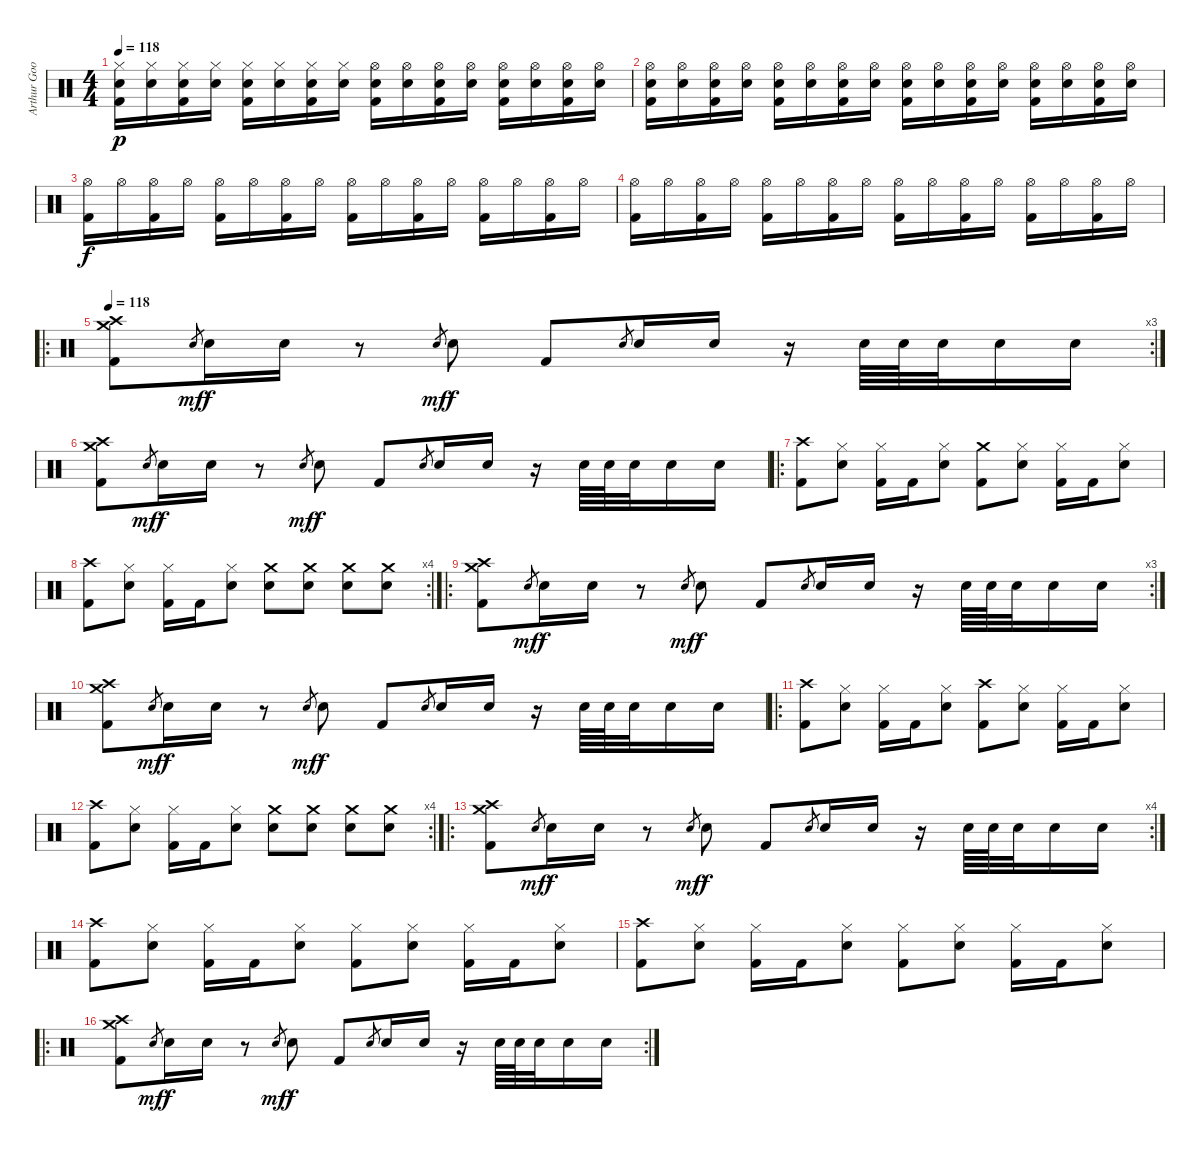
\track ("Arthur Googy" "Arthur Goo") {instrument percussion}
\staff {score}
\articulation defaults
\ts (4 4)
\tempo 118
\tempo 107
\tempo 118
\clef neutral
\ks c
("Hi-Hat (closed)" "Electric Snare (hit)" "Kick (hit) 2").16{dy p} ("Hi-Hat (closed)" "Electric Snare (hit)").16 ("Hi-Hat (closed)" "Electric Snare (hit)" "Kick (hit) 2").16 ("Hi-Hat (closed)" "Electric Snare (hit)").16 ("Hi-Hat (closed)" "Electric Snare (hit)" "Kick (hit) 2").16 ("Hi-Hat (closed)" "Electric Snare (hit)").16 ("Hi-Hat (closed)" "Electric Snare (hit)" "Kick (hit) 2").16 ("Hi-Hat (closed)" "Electric Snare (hit)").16 ("Hi-Hat (open)" "Electric Snare (hit)" "Kick (hit) 2").16 ("Hi-Hat (open)" "Electric Snare (hit)").16 ("Hi-Hat (open)" "Electric Snare (hit)" "Kick (hit) 2").16 ("Hi-Hat (open)" "Electric Snare (hit)").16 ("Hi-Hat (open)" "Electric Snare (hit)" "Kick (hit) 2").16 ("Hi-Hat (open)" "Electric Snare (hit)").16 ("Hi-Hat (open)" "Electric Snare (hit)" "Kick (hit) 2").16 ("Hi-Hat (open)" "Electric Snare (hit)").16 |
("Hi-Hat (open)" "Electric Snare (hit)" "Kick (hit) 2").16 ("Hi-Hat (open)" "Electric Snare (hit)").16 ("Hi-Hat (open)" "Electric Snare (hit)" "Kick (hit) 2").16 ("Hi-Hat (open)" "Electric Snare (hit)").16 ("Hi-Hat (open)" "Electric Snare (hit)" "Kick (hit) 2").16 ("Hi-Hat (open)" "Electric Snare (hit)").16 ("Hi-Hat (open)" "Electric Snare (hit)" "Kick (hit) 2").16 ("Hi-Hat (open)" "Electric Snare (hit)").16 ("Hi-Hat (open)" "Electric Snare (hit)" "Kick (hit) 2").16 ("Hi-Hat (open)" "Electric Snare (hit)").16 ("Hi-Hat (open)" "Electric Snare (hit)" "Kick (hit) 2").16 ("Hi-Hat (open)" "Electric Snare (hit)").16 ("Hi-Hat (open)" "Electric Snare (hit)" "Kick (hit) 2").16 ("Hi-Hat (open)" "Electric Snare (hit)").16 ("Hi-Hat (open)" "Electric Snare (hit)" "Kick (hit) 2").16 ("Hi-Hat (open)" "Electric Snare (hit)").16 |
("Hi-Hat (open)" "Kick (hit) 2").16{dy f} "Hi-Hat (open)".16 ("Hi-Hat (open)" "Kick (hit) 2").16 "Hi-Hat (open)".16 ("Hi-Hat (open)" "Kick (hit) 2").16 "Hi-Hat (open)".16 ("Hi-Hat (open)" "Kick (hit) 2").16 "Hi-Hat (open)".16 ("Hi-Hat (open)" "Kick (hit) 2").16 "Hi-Hat (open)".16 ("Hi-Hat (open)" "Kick (hit) 2").16 "Hi-Hat (open)".16 ("Hi-Hat (open)" "Kick (hit) 2").16 "Hi-Hat (open)".16 ("Hi-Hat (open)" "Kick (hit) 2").16 "Hi-Hat (open)".16 |
("Hi-Hat (open)" "Kick (hit) 2").16 "Hi-Hat (open)".16 ("Hi-Hat (open)" "Kick (hit) 2").16 "Hi-Hat (open)".16 ("Hi-Hat (open)" "Kick (hit) 2").16 "Hi-Hat (open)".16 ("Hi-Hat (open)" "Kick (hit) 2").16 "Hi-Hat (open)".16 ("Hi-Hat (open)" "Kick (hit) 2").16 "Hi-Hat (open)".16 ("Hi-Hat (open)" "Kick (hit) 2").16 "Hi-Hat (open)".16 ("Hi-Hat (open)" "Kick (hit) 2").16 "Hi-Hat (open)".16 ("Hi-Hat (open)" "Kick (hit) 2").16 "Hi-Hat (open)".16 |
\ro
\rc 3
\tempo 118
("Crash high (hit)" "Crash medium (hit)" "Kick (hit) 2").8 "Electric Snare (hit)".8{gr dy mf} "Electric Snare (hit)".16{dy f} "Electric Snare (hit)".16 r.8 "Electric Snare (hit)".8{gr dy mf} "Electric Snare (hit)".8{dy f} "Kick (hit) 2".8 "Electric Snare (hit)".8{gr} "Electric Snare (hit)".16 "Electric Snare (hit)".16 r.16 "Electric Snare (hit)".64 "Electric Snare (hit)".64 "Electric Snare (hit)".32 "Electric Snare (hit)".16 "Electric Snare (hit)".16 |
("Crash high (hit)" "Crash medium (hit)" "Kick (hit) 2").8 "Electric Snare (hit)".8{gr dy mf} "Electric Snare (hit)".16{dy f} "Electric Snare (hit)".16 r.8 "Electric Snare (hit)".8{gr dy mf} "Electric Snare (hit)".8{dy f} "Kick (hit) 2".8 "Electric Snare (hit)".8{gr} "Electric Snare (hit)".16 "Electric Snare (hit)".16 r.16 "Electric Snare (hit)".64 "Electric Snare (hit)".64 "Electric Snare (hit)".32 "Electric Snare (hit)".16 "Electric Snare (hit)".16 |
\ro
("Crash high (hit)" "Kick (hit) 2").8 ("Hi-Hat (closed)" "Electric Snare (hit)").8 ("Hi-Hat (closed)" "Kick (hit) 2").16 "Kick (hit) 2".16 ("Hi-Hat (closed)" "Electric Snare (hit)").8 ("Crash medium (hit)" "Kick (hit) 2").8 ("Hi-Hat (closed)" "Electric Snare (hit)").8 ("Hi-Hat (closed)" "Kick (hit) 2").16 "Kick (hit) 2".16 ("Hi-Hat (closed)" "Electric Snare (hit)").8 |
\rc 4
("Crash high (hit)" "Kick (hit) 2").8 ("Hi-Hat (closed)" "Electric Snare (hit)").8 ("Hi-Hat (closed)" "Kick (hit) 2").16 "Kick (hit) 2".16 ("Hi-Hat (closed)" "Electric Snare (hit)").8 ("Crash medium (hit)" "Electric Snare (hit)").8 ("Crash medium (hit)" "Electric Snare (hit)").8 ("Crash medium (hit)" "Electric Snare (hit)").8 ("Crash medium (hit)" "Electric Snare (hit)").8 |
\ro
\rc 3
("Crash high (hit)" "Crash medium (hit)" "Kick (hit) 2").8 "Electric Snare (hit)".8{gr dy mf} "Electric Snare (hit)".16{dy f} "Electric Snare (hit)".16 r.8 "Electric Snare (hit)".8{gr dy mf} "Electric Snare (hit)".8{dy f} "Kick (hit) 2".8 "Electric Snare (hit)".8{gr} "Electric Snare (hit)".16 "Electric Snare (hit)".16 r.16 "Electric Snare (hit)".64 "Electric Snare (hit)".64 "Electric Snare (hit)".32 "Electric Snare (hit)".16 "Electric Snare (hit)".16 |
("Crash high (hit)" "Crash medium (hit)" "Kick (hit) 2").8 "Electric Snare (hit)".8{gr dy mf} "Electric Snare (hit)".16{dy f} "Electric Snare (hit)".16 r.8 "Electric Snare (hit)".8{gr dy mf} "Electric Snare (hit)".8{dy f} "Kick (hit) 2".8 "Electric Snare (hit)".8{gr} "Electric Snare (hit)".16 "Electric Snare (hit)".16 r.16 "Electric Snare (hit)".64 "Electric Snare (hit)".64 "Electric Snare (hit)".32 "Electric Snare (hit)".16 "Electric Snare (hit)".16 |
\ro
("Crash high (hit)" "Kick (hit) 2").8 ("Hi-Hat (closed)" "Electric Snare (hit)").8 ("Hi-Hat (closed)" "Kick (hit) 2").16 "Kick (hit) 2".16 ("Hi-Hat (closed)" "Electric Snare (hit)").8 ("Crash high (hit)" "Kick (hit) 2").8 ("Hi-Hat (closed)" "Electric Snare (hit)").8 ("Hi-Hat (closed)" "Kick (hit) 2").16 "Kick (hit) 2".16 ("Hi-Hat (closed)" "Electric Snare (hit)").8 |
\rc 4
("Crash high (hit)" "Kick (hit) 2").8 ("Hi-Hat (closed)" "Electric Snare (hit)").8 ("Hi-Hat (closed)" "Kick (hit) 2").16 "Kick (hit) 2".16 ("Hi-Hat (closed)" "Electric Snare (hit)").8 ("Crash medium (hit)" "Electric Snare (hit)").8 ("Crash medium (hit)" "Electric Snare (hit)").8 ("Crash medium (hit)" "Electric Snare (hit)").8 ("Crash medium (hit)" "Electric Snare (hit)").8 |
\ro
\rc 4
("Crash high (hit)" "Crash medium (hit)" "Kick (hit) 2").8 "Electric Snare (hit)".8{gr dy mf} "Electric Snare (hit)".16{dy f} "Electric Snare (hit)".16 r.8 "Electric Snare (hit)".8{gr dy mf} "Electric Snare (hit)".8{dy f} "Kick (hit) 2".8 "Electric Snare (hit)".8{gr} "Electric Snare (hit)".16 "Electric Snare (hit)".16 r.16 "Electric Snare (hit)".64 "Electric Snare (hit)".64 "Electric Snare (hit)".32 "Electric Snare (hit)".16 "Electric Snare (hit)".16 |
("Crash high (hit)" "Kick (hit) 2").8 ("Hi-Hat (closed)" "Electric Snare (hit)").8 ("Hi-Hat (closed)" "Kick (hit) 2").16 "Kick (hit) 2".16 ("Hi-Hat (closed)" "Electric Snare (hit)").8 ("Hi-Hat (closed)" "Kick (hit) 2").8 ("Hi-Hat (closed)" "Electric Snare (hit)").8 ("Hi-Hat (closed)" "Kick (hit) 2").16 "Kick (hit) 2".16 ("Hi-Hat (closed)" "Electric Snare (hit)").8 |
("Crash high (hit)" "Kick (hit) 2").8 ("Hi-Hat (closed)" "Electric Snare (hit)").8 ("Hi-Hat (closed)" "Kick (hit) 2").16 "Kick (hit) 2".16 ("Hi-Hat (closed)" "Electric Snare (hit)").8 ("Hi-Hat (closed)" "Kick (hit) 2").8 ("Hi-Hat (closed)" "Electric Snare (hit)").8 ("Hi-Hat (closed)" "Kick (hit) 2").16 "Kick (hit) 2".16 ("Hi-Hat (closed)" "Electric Snare (hit)").8 |
\ro
\rc 2
("Crash high (hit)" "Crash medium (hit)" "Kick (hit) 2").8 "Electric Snare (hit)".8{gr dy mf} "Electric Snare (hit)".16{dy f} "Electric Snare (hit)".16 r.8 "Electric Snare (hit)".8{gr dy mf} "Electric Snare (hit)".8{dy f} "Kick (hit) 2".8 "Electric Snare (hit)".8{gr} "Electric Snare (hit)".16 "Electric Snare (hit)".16 r.16 "Electric Snare (hit)".64 "Electric Snare (hit)".64 "Electric Snare (hit)".32 "Electric Snare (hit)".16 "Electric Snare (hit)".16
